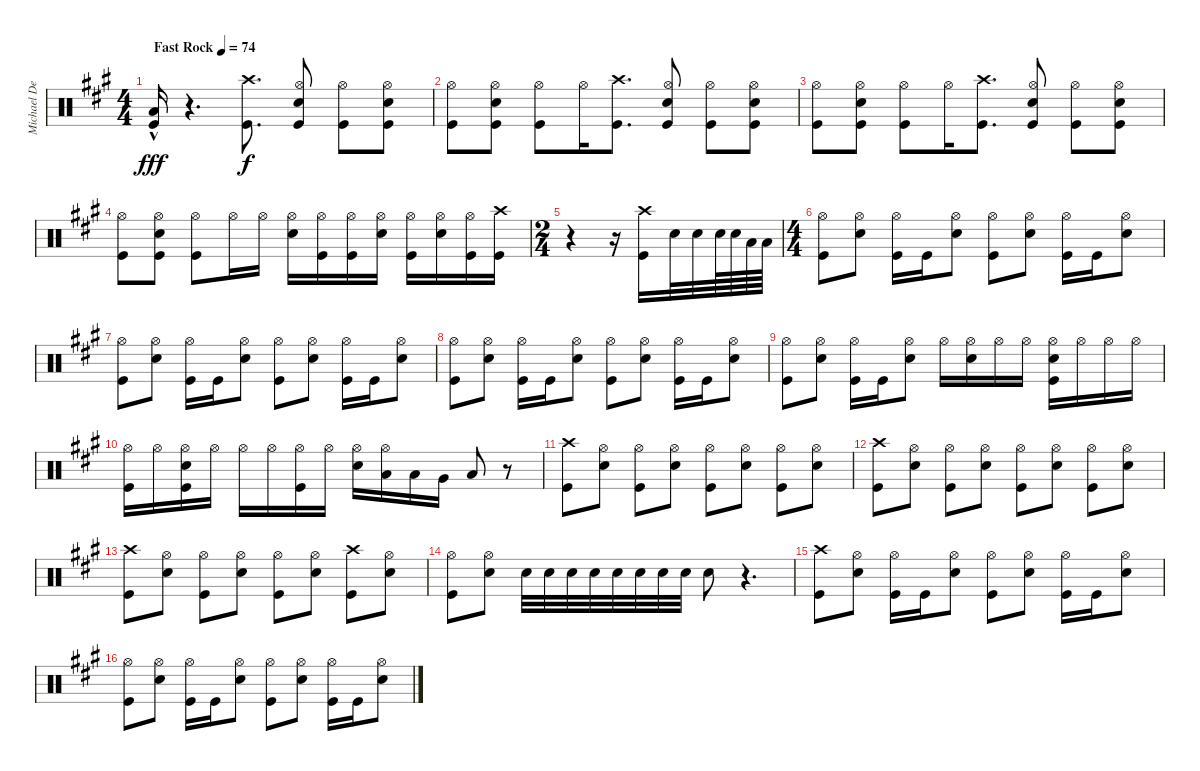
\track ("Michael Derosier Drums" "Michael De") {instrument percussion}
\staff {score}
\articulation defaults
\ts (4 4)
\tempo (74 "Fast Rock")
\clef neutral
\ks a
("Low Floor Tom (hit)"{hac} "Kick (hit)"{hac}).16{dy fff} r.4{d} ("Crash high (hit)" "Kick (hit)").8{d dy f} ("Hi-Hat (open)" "Snare (hit) 2" "Kick (hit)").8 ("Hi-Hat (open)" "Kick (hit)").8 ("Hi-Hat (open)" "Snare (hit) 2" "Kick (hit)").8 |
("Hi-Hat (open)" "Kick (hit)").8 ("Hi-Hat (open)" "Snare (hit) 2" "Kick (hit)").8 ("Hi-Hat (open)" "Kick (hit)").8 "Hi-Hat (open)".16 ("Crash high (hit)" "Kick (hit)").8{d} ("Hi-Hat (open)" "Snare (hit) 2" "Kick (hit)").8 ("Hi-Hat (open)" "Kick (hit)").8 ("Hi-Hat (open)" "Snare (hit) 2" "Kick (hit)").8 |
("Hi-Hat (open)" "Kick (hit)").8 ("Hi-Hat (open)" "Snare (hit) 2" "Kick (hit)").8 ("Hi-Hat (open)" "Kick (hit)").8 "Hi-Hat (open)".16 ("Crash high (hit)" "Kick (hit)").8{d} ("Hi-Hat (open)" "Snare (hit) 2" "Kick (hit)").8 ("Hi-Hat (open)" "Kick (hit)").8 ("Hi-Hat (open)" "Snare (hit) 2" "Kick (hit)").8 |
("Hi-Hat (open)" "Kick (hit)").8 ("Hi-Hat (open)" "Snare (hit) 2" "Kick (hit)").8 ("Hi-Hat (open)" "Kick (hit)").8 "Hi-Hat (open)".16 "Hi-Hat (open)".16 ("Hi-Hat (open)" "Snare (hit) 2").16 ("Hi-Hat (open)" "Kick (hit)").16 ("Hi-Hat (open)" "Kick (hit)").16 ("Hi-Hat (open)" "Snare (hit) 2").16 ("Hi-Hat (open)" "Kick (hit)").16 ("Hi-Hat (open)" "Snare (hit) 2").16 ("Hi-Hat (open)" "Kick (hit)").16 ("Crash high (hit)" "Kick (hit)").16 |
\ts (2 4)
r.4 r.16 ("Crash high (hit)" "Kick (hit)").16 "Snare (hit) 2".32 "Snare (hit) 2".32 "Snare (hit) 2".64 "Snare (hit) 2".64 "Low Tom (hit)".64 "Low Tom (hit)".64 |
\ts (4 4)
("Hi-Hat (open)" "Kick (hit)").8 ("Hi-Hat (open)" "Snare (hit) 2").8 ("Hi-Hat (open)" "Kick (hit)").16 "Kick (hit)".16 ("Hi-Hat (open)" "Snare (hit) 2").8 ("Hi-Hat (open)" "Kick (hit)").8 ("Hi-Hat (open)" "Snare (hit) 2").8 ("Hi-Hat (open)" "Kick (hit)").16 "Kick (hit)".16 ("Hi-Hat (open)" "Snare (hit) 2").8 |
("Hi-Hat (open)" "Kick (hit)").8 ("Hi-Hat (open)" "Snare (hit) 2").8 ("Hi-Hat (open)" "Kick (hit)").16 "Kick (hit)".16 ("Hi-Hat (open)" "Snare (hit) 2").8 ("Hi-Hat (open)" "Kick (hit)").8 ("Hi-Hat (open)" "Snare (hit) 2").8 ("Hi-Hat (open)" "Kick (hit)").16 "Kick (hit)".16 ("Hi-Hat (open)" "Snare (hit) 2").8 |
("Hi-Hat (open)" "Kick (hit)").8 ("Hi-Hat (open)" "Snare (hit) 2").8 ("Hi-Hat (open)" "Kick (hit)").16 "Kick (hit)".16 ("Hi-Hat (open)" "Snare (hit) 2").8 ("Hi-Hat (open)" "Kick (hit)").8 ("Hi-Hat (open)" "Snare (hit) 2").8 ("Hi-Hat (open)" "Kick (hit)").16 "Kick (hit)".16 ("Hi-Hat (open)" "Snare (hit) 2").8 |
("Hi-Hat (open)" "Kick (hit)").8 ("Hi-Hat (open)" "Snare (hit) 2").8 ("Hi-Hat (open)" "Kick (hit)").16 "Kick (hit)".16 ("Hi-Hat (open)" "Snare (hit) 2").8 "Hi-Hat (open)".16 ("Hi-Hat (open)" "Snare (hit) 2").16 "Hi-Hat (open)".16 "Hi-Hat (open)".16 ("Hi-Hat (open)" "Snare (hit) 2" "Kick (hit)").16 "Hi-Hat (open)".16 "Hi-Hat (open)".16 "Hi-Hat (open)".16 |
("Hi-Hat (open)" "Kick (hit)").16 "Hi-Hat (open)".16 ("Hi-Hat (open)" "Snare (hit) 2" "Kick (hit)").16 "Hi-Hat (open)".16 "Hi-Hat (open)".16 "Hi-Hat (open)".16 ("Hi-Hat (open)" "Kick (hit)").16 "Hi-Hat (open)".16 ("Hi-Hat (open)" "Snare (hit) 2").16 ("Hi-Hat (open)" "Low Tom (hit)").16 "Low Tom (hit)".16 "Very Low Tom (hit)".16 "Low Floor Tom (hit)".8 r.8 |
("Crash high (hit)" "Kick (hit)").8 ("Hi-Hat (open)" "Snare (hit) 2").8 ("Hi-Hat (open)" "Kick (hit)").8 ("Hi-Hat (open)" "Snare (hit) 2").8 ("Hi-Hat (open)" "Kick (hit)").8 ("Hi-Hat (open)" "Snare (hit) 2").8 ("Hi-Hat (open)" "Kick (hit)").8 ("Hi-Hat (open)" "Snare (hit) 2").8 |
("Crash high (hit)" "Kick (hit)").8 ("Hi-Hat (open)" "Snare (hit) 2").8 ("Hi-Hat (open)" "Kick (hit)").8 ("Hi-Hat (open)" "Snare (hit) 2").8 ("Hi-Hat (open)" "Kick (hit)").8 ("Hi-Hat (open)" "Snare (hit) 2").8 ("Hi-Hat (open)" "Kick (hit)").8 ("Hi-Hat (open)" "Snare (hit) 2").8 |
("Crash high (hit)" "Kick (hit)").8 ("Hi-Hat (open)" "Snare (hit) 2").8 ("Hi-Hat (open)" "Kick (hit)").8 ("Hi-Hat (open)" "Snare (hit) 2").8 ("Hi-Hat (open)" "Kick (hit)").8 ("Hi-Hat (open)" "Snare (hit) 2").8 ("Crash high (hit)" "Kick (hit)").8 ("Hi-Hat (open)" "Snare (hit) 2").8 |
("Hi-Hat (open)" "Kick (hit)").8 ("Hi-Hat (open)" "Snare (hit) 2").8 "Snare (hit) 2".32 "Snare (hit) 2".32 "Snare (hit) 2".32 "Snare (hit) 2".32 "Snare (hit) 2".32 "Snare (hit) 2".32 "Snare (hit) 2".32 "Snare (hit) 2".32 "Snare (hit) 2".8 r.4{d} |
("Crash high (hit)" "Kick (hit)").8 ("Hi-Hat (open)" "Snare (hit) 2").8 ("Hi-Hat (open)" "Kick (hit)").16 "Kick (hit)".16 ("Hi-Hat (open)" "Snare (hit) 2").8 ("Hi-Hat (open)" "Kick (hit)").8 ("Hi-Hat (open)" "Snare (hit) 2").8 ("Hi-Hat (open)" "Kick (hit)").16 "Kick (hit)".16 ("Hi-Hat (open)" "Snare (hit) 2").8 |
("Hi-Hat (open)" "Kick (hit)").8 ("Hi-Hat (open)" "Snare (hit) 2").8 ("Hi-Hat (open)" "Kick (hit)").16 "Kick (hit)".16 ("Hi-Hat (open)" "Snare (hit) 2").8 ("Hi-Hat (open)" "Kick (hit)").8 ("Hi-Hat (open)" "Snare (hit) 2").8 ("Hi-Hat (open)" "Kick (hit)").16 "Kick (hit)".16 ("Hi-Hat (open)" "Snare (hit) 2").8
